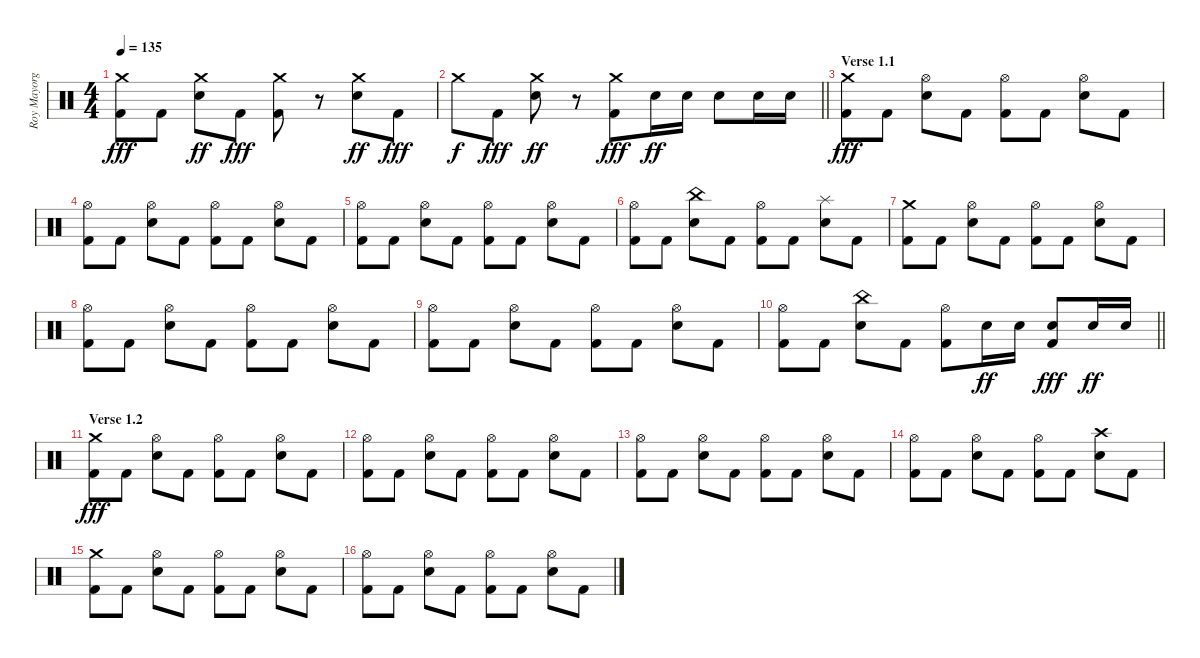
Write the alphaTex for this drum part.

\track ("Roy Mayorga" "Roy Mayorg") {instrument percussion}
\staff {score}
\articulation defaults
\ts (4 4)
\tempo 135
\clef neutral
\ks c
("Crash medium (hit)" "Kick (hit) 2").8{dy fff} "Kick (hit) 2".8 ("Crash medium (hit)" "Electric Snare (hit)").8{dy ff} "Kick (hit) 2".8{dy fff} ("Crash medium (hit)" "Kick (hit) 2").8 r.8 ("Crash medium (hit)" "Electric Snare (hit)").8{dy ff} "Kick (hit) 2".8{dy fff} |
\barLineRight lightlight "Crash medium (hit)".8{dy f} "Kick (hit) 2".8{dy fff}
("Crash medium (hit)" "Electric Snare (hit)").8{dy ff} r.8 ("Crash medium (hit)" "Kick (hit) 2").8{dy fff} "Electric Snare (hit)".16{dy ff} "Electric Snare (hit)".16 "Electric Snare (hit)".8 "Electric Snare (hit)".16 "Electric Snare (hit)".16 |
\section ("" "Verse 1.1")
("Crash medium (hit)" "Kick (hit) 2").8{dy fff} "Kick (hit) 2".8 ("Hi-Hat (open)" "Electric Snare (hit)").8 "Kick (hit) 2".8 ("Hi-Hat (open)" "Kick (hit) 2").8 "Kick (hit) 2".8 ("Hi-Hat (open)" "Electric Snare (hit)").8 "Kick (hit) 2".8 |
("Hi-Hat (open)" "Kick (hit) 2").8 "Kick (hit) 2".8 ("Hi-Hat (open)" "Electric Snare (hit)").8 "Kick (hit) 2".8 ("Hi-Hat (open)" "Kick (hit) 2").8 "Kick (hit) 2".8 ("Hi-Hat (open)" "Electric Snare (hit)").8 "Kick (hit) 2".8 |
("Hi-Hat (open)" "Kick (hit) 2").8 "Kick (hit) 2".8 ("Hi-Hat (open)" "Electric Snare (hit)").8 "Kick (hit) 2".8 ("Hi-Hat (open)" "Kick (hit) 2").8 "Kick (hit) 2".8 ("Hi-Hat (open)" "Electric Snare (hit)").8 "Kick (hit) 2".8 |
("Hi-Hat (open)" "Kick (hit) 2").8 "Kick (hit) 2".8 ("China (hit)" "Electric Snare (hit)").8 "Kick (hit) 2".8 ("Hi-Hat (open)" "Kick (hit) 2").8 "Kick (hit) 2".8 ("Splash (hit)" "Electric Snare (hit)").8 "Kick (hit) 2".8 |
("Crash medium (hit)" "Kick (hit) 2").8 "Kick (hit) 2".8 ("Hi-Hat (open)" "Electric Snare (hit)").8 "Kick (hit) 2".8 ("Hi-Hat (open)" "Kick (hit) 2").8 "Kick (hit) 2".8 ("Hi-Hat (open)" "Electric Snare (hit)").8 "Kick (hit) 2".8 |
("Hi-Hat (open)" "Kick (hit) 2").8 "Kick (hit) 2".8 ("Hi-Hat (open)" "Electric Snare (hit)").8 "Kick (hit) 2".8 ("Hi-Hat (open)" "Kick (hit) 2").8 "Kick (hit) 2".8 ("Hi-Hat (open)" "Electric Snare (hit)").8 "Kick (hit) 2".8 |
("Hi-Hat (open)" "Kick (hit) 2").8 "Kick (hit) 2".8 ("Hi-Hat (open)" "Electric Snare (hit)").8 "Kick (hit) 2".8 ("Hi-Hat (open)" "Kick (hit) 2").8 "Kick (hit) 2".8 ("Hi-Hat (open)" "Electric Snare (hit)").8 "Kick (hit) 2".8 |
\barLineRight lightlight
("Hi-Hat (open)" "Kick (hit) 2").8 "Kick (hit) 2".8 ("China (hit)" "Electric Snare (hit)").8 "Kick (hit) 2".8 ("Hi-Hat (open)" "Kick (hit) 2").8 "Electric Snare (hit)".16{dy ff} "Electric Snare (hit)".16 ("Electric Snare (hit)" "Kick (hit) 2").8{dy fff} "Electric Snare (hit)".16{dy ff} "Electric Snare (hit)".16 |
\section ("" "Verse 1.2")
("Crash medium (hit)" "Kick (hit) 2").8{dy fff} "Kick (hit) 2".8 ("Hi-Hat (open)" "Electric Snare (hit)").8 "Kick (hit) 2".8 ("Hi-Hat (open)" "Kick (hit) 2").8 "Kick (hit) 2".8 ("Hi-Hat (open)" "Electric Snare (hit)").8 "Kick (hit) 2".8 |
("Hi-Hat (open)" "Kick (hit) 2").8 "Kick (hit) 2".8 ("Hi-Hat (open)" "Electric Snare (hit)").8 "Kick (hit) 2".8 ("Hi-Hat (open)" "Kick (hit) 2").8 "Kick (hit) 2".8 ("Hi-Hat (open)" "Electric Snare (hit)").8 "Kick (hit) 2".8 |
("Hi-Hat (open)" "Kick (hit) 2").8 "Kick (hit) 2".8 ("Hi-Hat (open)" "Electric Snare (hit)").8 "Kick (hit) 2".8 ("Hi-Hat (open)" "Kick (hit) 2").8 "Kick (hit) 2".8 ("Hi-Hat (open)" "Electric Snare (hit)").8 "Kick (hit) 2".8 |
("Hi-Hat (open)" "Kick (hit) 2").8 "Kick (hit) 2".8 ("Hi-Hat (open)" "Electric Snare (hit)").8 "Kick (hit) 2".8 ("Hi-Hat (open)" "Kick (hit) 2").8 "Kick (hit) 2".8 ("Crash high (hit)" "Electric Snare (hit)").8 "Kick (hit) 2".8 |
("Crash medium (hit)" "Kick (hit) 2").8 "Kick (hit) 2".8 ("Hi-Hat (open)" "Electric Snare (hit)").8 "Kick (hit) 2".8 ("Hi-Hat (open)" "Kick (hit) 2").8 "Kick (hit) 2".8 ("Hi-Hat (open)" "Electric Snare (hit)").8 "Kick (hit) 2".8 |
("Hi-Hat (open)" "Kick (hit) 2").8 "Kick (hit) 2".8 ("Hi-Hat (open)" "Electric Snare (hit)").8 "Kick (hit) 2".8 ("Hi-Hat (open)" "Kick (hit) 2").8 "Kick (hit) 2".8 ("Hi-Hat (open)" "Electric Snare (hit)").8 "Kick (hit) 2".8
